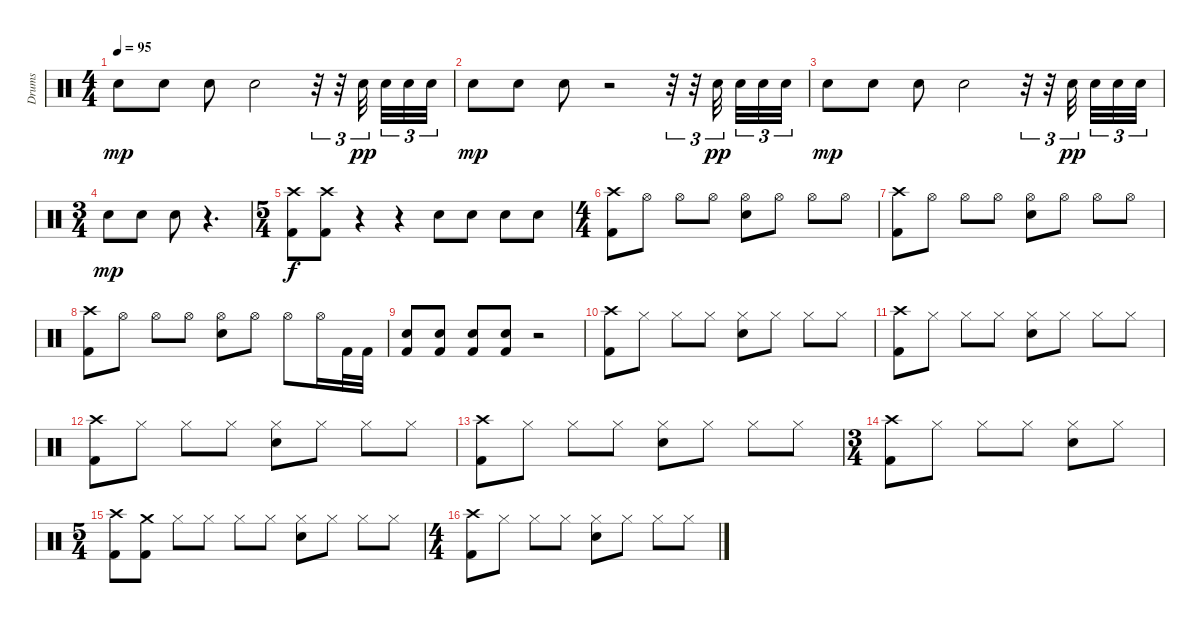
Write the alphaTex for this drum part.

\track ("Drums" "Drums") {instrument percussion}
\staff {score}
\articulation defaults
\ts (4 4)
\tempo 95
\clef neutral
\ks c "Electric Snare (hit)".8{dy mp} "Electric Snare (hit)".8 "Electric Snare (hit)".8 "Electric Snare (hit)".2
r.32{tu (3 2)} r.32{tu (3 2)} "Electric Snare (hit)".32{tu (3 2) dy pp} "Electric Snare (hit)".32{tu (3 2)} "Electric Snare (hit)".32{tu (3 2)} "Electric Snare (hit)".32{tu (3 2)} |
"Electric Snare (hit)".8{dy mp} "Electric Snare (hit)".8 "Electric Snare (hit)".8 r.2 r.32{tu (3 2)} r.32{tu (3 2)} "Electric Snare (hit)".32{tu (3 2) dy pp} "Electric Snare (hit)".32{tu (3 2)} "Electric Snare (hit)".32{tu (3 2)} "Electric Snare (hit)".32{tu (3 2)} |
"Electric Snare (hit)".8{dy mp} "Electric Snare (hit)".8 "Electric Snare (hit)".8 "Electric Snare (hit)".2 r.32{tu (3 2)} r.32{tu (3 2)} "Electric Snare (hit)".32{tu (3 2) dy pp} "Electric Snare (hit)".32{tu (3 2)} "Electric Snare (hit)".32{tu (3 2)} "Electric Snare (hit)".32{tu (3 2)} |
\ts (3 4)
"Electric Snare (hit)".8{dy mp} "Electric Snare (hit)".8 "Electric Snare (hit)".8 r.4{d} |
\ts (5 4)
("Crash high (hit)" "Kick (hit) 2").8{dy f} ("Crash high (hit)" "Kick (hit) 2").8 r.4 r.4 "Snare (hit) 2".8 "Snare (hit) 2".8 "Snare (hit) 2".8 "Snare (hit) 2".8 |
\ts (4 4)
("Crash high (hit)" "Kick (hit) 2").8 "Hi-Hat (open)".8 "Hi-Hat (open)".8 "Hi-Hat (open)".8 ("Snare (hit) 2" "Hi-Hat (open)").8 "Hi-Hat (open)".8 "Hi-Hat (open)".8 "Hi-Hat (open)".8 |
("Crash high (hit)" "Kick (hit) 2").8 "Hi-Hat (open)".8 "Hi-Hat (open)".8 "Hi-Hat (open)".8 ("Snare (hit) 2" "Hi-Hat (open)").8 "Hi-Hat (open)".8 "Hi-Hat (open)".8 "Hi-Hat (open)".8 |
("Crash high (hit)" "Kick (hit) 2").8 "Hi-Hat (open)".8 "Hi-Hat (open)".8 "Hi-Hat (open)".8 ("Snare (hit) 2" "Hi-Hat (open)").8 "Hi-Hat (open)".8 "Hi-Hat (open)".8 "Hi-Hat (open)".16 "Kick (hit) 2".32 "Kick (hit) 2".32 |
("Snare (hit) 2" "Kick (hit) 2").8 ("Snare (hit) 2" "Kick (hit) 2").8 ("Snare (hit) 2" "Kick (hit) 2").8 ("Snare (hit) 2" "Kick (hit) 2").8 r.2 |
("Crash high (hit)" "Kick (hit) 2").8 "Hi-Hat (closed)".8 "Hi-Hat (closed)".8 "Hi-Hat (closed)".8 ("Snare (hit) 2" "Hi-Hat (closed)").8 "Hi-Hat (closed)".8 "Hi-Hat (closed)".8 "Hi-Hat (closed)".8 |
("Crash high (hit)" "Kick (hit) 2").8 "Hi-Hat (closed)".8 "Hi-Hat (closed)".8 "Hi-Hat (closed)".8 ("Snare (hit) 2" "Hi-Hat (closed)").8 "Hi-Hat (closed)".8 "Hi-Hat (closed)".8 "Hi-Hat (closed)".8 |
("Crash high (hit)" "Kick (hit) 2").8 "Hi-Hat (closed)".8 "Hi-Hat (closed)".8 "Hi-Hat (closed)".8 ("Snare (hit) 2" "Hi-Hat (closed)").8 "Hi-Hat (closed)".8 "Hi-Hat (closed)".8 "Hi-Hat (closed)".8 |
("Crash high (hit)" "Kick (hit) 2").8 "Hi-Hat (closed)".8 "Hi-Hat (closed)".8 "Hi-Hat (closed)".8 ("Snare (hit) 2" "Hi-Hat (closed)").8 "Hi-Hat (closed)".8 "Hi-Hat (closed)".8 "Hi-Hat (closed)".8 |
\ts (3 4)
("Crash high (hit)" "Kick (hit) 2").8 "Hi-Hat (closed)".8 "Hi-Hat (closed)".8 "Hi-Hat (closed)".8 ("Snare (hit) 2" "Hi-Hat (closed)").8 "Hi-Hat (closed)".8 |
\ts (5 4)
("Crash high (hit)" "Kick (hit) 2").8 ("Crash medium (hit)" "Kick (hit) 2").8 "Hi-Hat (closed)".8 "Hi-Hat (closed)".8 "Hi-Hat (closed)".8 "Hi-Hat (closed)".8 ("Snare (hit) 2" "Hi-Hat (closed)").8 "Hi-Hat (closed)".8 "Hi-Hat (closed)".8 "Hi-Hat (closed)".8 |
\ts (4 4)
("Crash high (hit)" "Kick (hit) 2").8 "Hi-Hat (closed)".8 "Hi-Hat (closed)".8 "Hi-Hat (closed)".8 ("Snare (hit) 2" "Hi-Hat (closed)").8 "Hi-Hat (closed)".8 "Hi-Hat (closed)".8 "Hi-Hat (closed)".8
